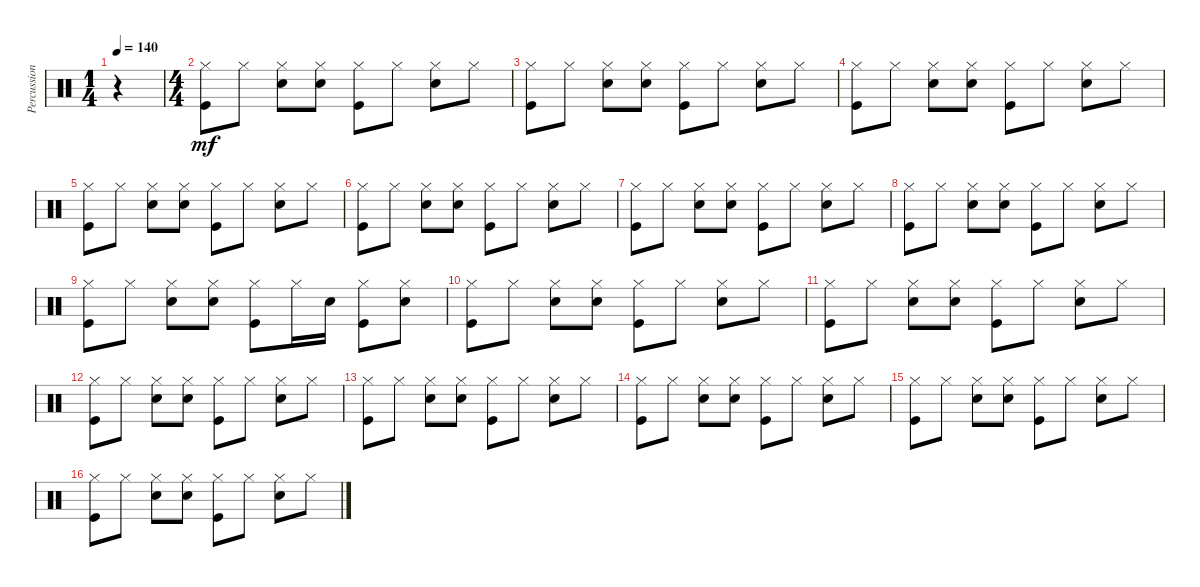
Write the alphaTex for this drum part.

\track ("Percussion" "Percussion") {instrument percussion}
\staff {score}
\articulation defaults
\ts (1 4)
\tempo 140
\clef neutral
\ks c
r.4{dy mf} |
\ts (4 4)
("Hi-Hat (closed)" "Kick (hit)").8 "Hi-Hat (closed)".8 ("Hi-Hat (closed)" "Snare (hit) 2").8 ("Hi-Hat (closed)" "Snare (hit) 2").8 ("Hi-Hat (closed)" "Kick (hit)").8 "Hi-Hat (closed)".8 ("Hi-Hat (closed)" "Snare (hit) 2").8 "Hi-Hat (closed)".8 |
("Hi-Hat (closed)" "Kick (hit)").8 "Hi-Hat (closed)".8 ("Hi-Hat (closed)" "Snare (hit) 2").8 ("Hi-Hat (closed)" "Snare (hit) 2").8 ("Hi-Hat (closed)" "Kick (hit)").8 "Hi-Hat (closed)".8 ("Hi-Hat (closed)" "Snare (hit) 2").8 "Hi-Hat (closed)".8 |
("Hi-Hat (closed)" "Kick (hit)").8 "Hi-Hat (closed)".8 ("Hi-Hat (closed)" "Snare (hit) 2").8 ("Hi-Hat (closed)" "Snare (hit) 2").8 ("Hi-Hat (closed)" "Kick (hit)").8 "Hi-Hat (closed)".8 ("Hi-Hat (closed)" "Snare (hit) 2").8 "Hi-Hat (closed)".8 |
("Hi-Hat (closed)" "Kick (hit)").8 "Hi-Hat (closed)".8 ("Hi-Hat (closed)" "Snare (hit) 2").8 ("Hi-Hat (closed)" "Snare (hit) 2").8 ("Hi-Hat (closed)" "Kick (hit)").8 "Hi-Hat (closed)".8 ("Hi-Hat (closed)" "Snare (hit) 2").8 "Hi-Hat (closed)".8 |
("Hi-Hat (closed)" "Kick (hit)").8 "Hi-Hat (closed)".8 ("Hi-Hat (closed)" "Snare (hit) 2").8 ("Hi-Hat (closed)" "Snare (hit) 2").8 ("Hi-Hat (closed)" "Kick (hit)").8 "Hi-Hat (closed)".8 ("Hi-Hat (closed)" "Snare (hit) 2").8 "Hi-Hat (closed)".8 |
("Hi-Hat (closed)" "Kick (hit)").8 "Hi-Hat (closed)".8 ("Hi-Hat (closed)" "Snare (hit) 2").8 ("Hi-Hat (closed)" "Snare (hit) 2").8 ("Hi-Hat (closed)" "Kick (hit)").8 "Hi-Hat (closed)".8 ("Hi-Hat (closed)" "Snare (hit) 2").8 "Hi-Hat (closed)".8 |
("Hi-Hat (closed)" "Kick (hit)").8 "Hi-Hat (closed)".8 ("Hi-Hat (closed)" "Snare (hit) 2").8 ("Hi-Hat (closed)" "Snare (hit) 2").8 ("Hi-Hat (closed)" "Kick (hit)").8 "Hi-Hat (closed)".8 ("Hi-Hat (closed)" "Snare (hit) 2").8 "Hi-Hat (closed)".8 |
("Hi-Hat (closed)" "Kick (hit)").8 "Hi-Hat (closed)".8 ("Hi-Hat (closed)" "Snare (hit) 2").8 ("Hi-Hat (closed)" "Snare (hit) 2").8 ("Hi-Hat (closed)" "Kick (hit)").8 "Hi-Hat (closed)".16 "Snare (hit) 2".16 ("Hi-Hat (closed)" "Kick (hit)").8 ("Hi-Hat (closed)" "Snare (hit) 2").8 |
("Hi-Hat (closed)" "Kick (hit)").8 "Hi-Hat (closed)".8 ("Hi-Hat (closed)" "Snare (hit) 2").8 ("Hi-Hat (closed)" "Snare (hit) 2").8 ("Hi-Hat (closed)" "Kick (hit)").8 "Hi-Hat (closed)".8 ("Hi-Hat (closed)" "Snare (hit) 2").8 "Hi-Hat (closed)".8 |
("Hi-Hat (closed)" "Kick (hit)").8 "Hi-Hat (closed)".8 ("Hi-Hat (closed)" "Snare (hit) 2").8 ("Hi-Hat (closed)" "Snare (hit) 2").8 ("Hi-Hat (closed)" "Kick (hit)").8 "Hi-Hat (closed)".8 ("Hi-Hat (closed)" "Snare (hit) 2").8 "Hi-Hat (closed)".8 |
("Hi-Hat (closed)" "Kick (hit)").8 "Hi-Hat (closed)".8 ("Hi-Hat (closed)" "Snare (hit) 2").8 ("Hi-Hat (closed)" "Snare (hit) 2").8 ("Hi-Hat (closed)" "Kick (hit)").8 "Hi-Hat (closed)".8 ("Hi-Hat (closed)" "Snare (hit) 2").8 "Hi-Hat (closed)".8 |
("Hi-Hat (closed)" "Kick (hit)").8 "Hi-Hat (closed)".8 ("Hi-Hat (closed)" "Snare (hit) 2").8 ("Hi-Hat (closed)" "Snare (hit) 2").8 ("Hi-Hat (closed)" "Kick (hit)").8 "Hi-Hat (closed)".8 ("Hi-Hat (closed)" "Snare (hit) 2").8 "Hi-Hat (closed)".8 |
("Hi-Hat (closed)" "Kick (hit)").8 "Hi-Hat (closed)".8 ("Hi-Hat (closed)" "Snare (hit) 2").8 ("Hi-Hat (closed)" "Snare (hit) 2").8 ("Hi-Hat (closed)" "Kick (hit)").8 "Hi-Hat (closed)".8 ("Hi-Hat (closed)" "Snare (hit) 2").8 "Hi-Hat (closed)".8 |
("Hi-Hat (closed)" "Kick (hit)").8 "Hi-Hat (closed)".8 ("Hi-Hat (closed)" "Snare (hit) 2").8 ("Hi-Hat (closed)" "Snare (hit) 2").8 ("Hi-Hat (closed)" "Kick (hit)").8 "Hi-Hat (closed)".8 ("Hi-Hat (closed)" "Snare (hit) 2").8 "Hi-Hat (closed)".8 |
("Hi-Hat (closed)" "Kick (hit)").8 "Hi-Hat (closed)".8 ("Hi-Hat (closed)" "Snare (hit) 2").8 ("Hi-Hat (closed)" "Snare (hit) 2").8 ("Hi-Hat (closed)" "Kick (hit)").8 "Hi-Hat (closed)".8 ("Hi-Hat (closed)" "Snare (hit) 2").8 "Hi-Hat (closed)".8
